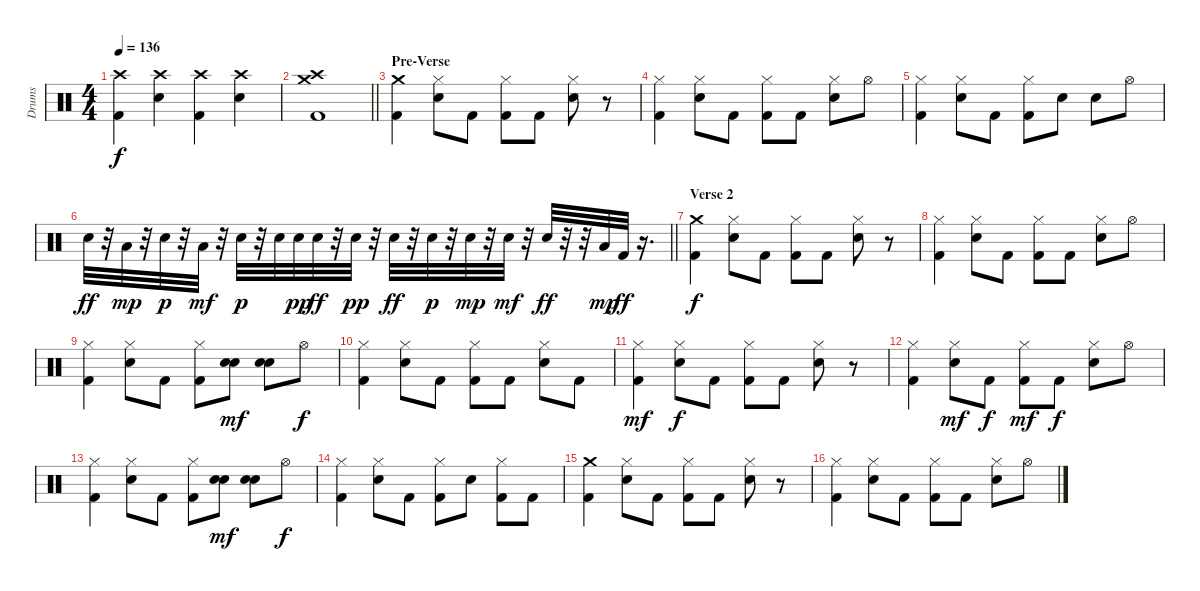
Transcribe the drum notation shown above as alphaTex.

\track ("Drums" "Drums") {instrument percussion}
\staff {score}
\articulation defaults
\ts (4 4)
\tempo 136
\clef neutral
\ks c
("Crash high (hit)" "Kick (hit) 2").4{dy f} ("Crash high (hit)" "Snare (hit) 2").4 ("Crash high (hit)" "Kick (hit) 2").4 ("Crash high (hit)" "Snare (hit) 2").4 |
\barLineRight lightlight
("Crash high (hit)" "Crash medium (hit)" "Kick (hit) 2").1 |
\section ("" "Pre-Verse ")
("Crash medium (hit)" "Kick (hit) 2").4 ("Hi-Hat (closed)" "Snare (hit) 2").8 "Kick (hit) 2".8 ("Hi-Hat (closed)" "Kick (hit) 2").8 "Kick (hit) 2".8 ("Hi-Hat (closed)" "Snare (hit) 2").8 r.8 |
("Hi-Hat (closed)" "Kick (hit) 2").4 ("Hi-Hat (closed)" "Snare (hit) 2").8 "Kick (hit) 2".8 ("Hi-Hat (closed)" "Kick (hit) 2").8 "Kick (hit) 2".8 ("Hi-Hat (closed)" "Snare (hit) 2").8 "Hi-Hat (open)".8 |
("Hi-Hat (closed)" "Kick (hit) 2").4 ("Hi-Hat (closed)" "Snare (hit) 2").8 "Kick (hit) 2".8 ("Hi-Hat (closed)" "Kick (hit) 2").8 "Snare (hit) 2".8 "Snare (hit) 2".8 "Hi-Hat (open)".8 |
\barLineRight lightlight "Snare (hit) 2".32{dy ff}
r.32 "Low Tom (hit)".32{dy mp} r.32 "Snare (hit) 2".32{dy p} r.32 "Low Tom (hit)".32{dy mf} r.32 "Snare (hit) 2".32{dy p} r.32 "Snare (hit) 2".32 "Snare (hit) 2".32{dy pp} "Snare (hit) 2".32{dy ff} r.32 "Snare (hit) 2".32{dy pp} r.32 "Snare (hit) 2".32{dy ff} r.32 "Snare (hit) 2".32{dy p} r.32 "Snare (hit) 2".32{dy mp} r.32 "Snare (hit) 2".32{dy mf} r.32 "Snare (hit) 2".32{dy ff} r.32 r.32 "Low Floor Tom (hit)".32{dy mp} "Kick (hit) 2".32{dy ff} r.16{d} |
\section ("" "Verse 2")
("Crash medium (hit)" "Kick (hit) 2").4{dy f} ("Hi-Hat (closed)" "Snare (hit) 2").8 "Kick (hit) 2".8 ("Hi-Hat (closed)" "Kick (hit) 2").8 "Kick (hit) 2".8 ("Hi-Hat (closed)" "Snare (hit) 2").8 r.8 |
("Hi-Hat (closed)" "Kick (hit) 2").4 ("Hi-Hat (closed)" "Snare (hit) 2").8 "Kick (hit) 2".8 ("Hi-Hat (closed)" "Kick (hit) 2").8 "Kick (hit) 2".8 ("Hi-Hat (closed)" "Snare (hit) 2").8 "Hi-Hat (open)".8 |
("Hi-Hat (closed)" "Kick (hit) 2").4 ("Hi-Hat (closed)" "Snare (hit) 2").8 "Kick (hit) 2".8 ("Hi-Hat (closed)" "Kick (hit) 2").8 ("Hand Clap (hit)" "Snare (hit) 2").8{dy mf} ("Hand Clap (hit)" "Snare (hit) 2").8 "Hi-Hat (open)".8{dy f} |
("Hi-Hat (closed)" "Kick (hit) 2").4 ("Hi-Hat (closed)" "Snare (hit) 2").8 "Kick (hit) 2".8 ("Hi-Hat (closed)" "Kick (hit) 2").8 "Kick (hit) 2".8 ("Hi-Hat (closed)" "Snare (hit) 2").8 "Kick (hit) 2".8 |
("Hi-Hat (closed)" "Kick (hit) 2").4{dy mf} ("Hi-Hat (closed)" "Snare (hit) 2").8{dy f} "Kick (hit) 2".8 ("Hi-Hat (closed)" "Kick (hit) 2").8 "Kick (hit) 2".8 ("Hi-Hat (closed)" "Snare (hit) 2").8 r.8 |
("Hi-Hat (closed)" "Kick (hit) 2").4 ("Hi-Hat (closed)" "Snare (hit) 2").8{dy mf} "Kick (hit) 2".8{dy f} ("Hi-Hat (closed)" "Kick (hit) 2").8{dy mf} "Kick (hit) 2".8{dy f} ("Hi-Hat (closed)" "Snare (hit) 2").8 "Hi-Hat (open)".8 |
("Hi-Hat (closed)" "Kick (hit) 2").4 ("Hi-Hat (closed)" "Snare (hit) 2").8 "Kick (hit) 2".8 ("Hi-Hat (closed)" "Kick (hit) 2").8 ("Hand Clap (hit)" "Snare (hit) 2").8{dy mf} ("Hand Clap (hit)" "Snare (hit) 2").8 "Hi-Hat (open)".8{dy f} |
("Hi-Hat (closed)" "Kick (hit) 2").4 ("Hi-Hat (closed)" "Snare (hit) 2").8 "Kick (hit) 2".8 ("Hi-Hat (closed)" "Kick (hit) 2").8 "Snare (hit) 2".8 ("Hi-Hat (closed)" "Kick (hit) 2").8 "Kick (hit) 2".8 |
("Crash medium (hit)" "Kick (hit) 2").4 ("Hi-Hat (closed)" "Snare (hit) 2").8 "Kick (hit) 2".8 ("Hi-Hat (closed)" "Kick (hit) 2").8 "Kick (hit) 2".8 ("Hi-Hat (closed)" "Snare (hit) 2").8 r.8 |
("Hi-Hat (closed)" "Kick (hit) 2").4 ("Hi-Hat (closed)" "Snare (hit) 2").8 "Kick (hit) 2".8 ("Hi-Hat (closed)" "Kick (hit) 2").8 "Kick (hit) 2".8 ("Hi-Hat (closed)" "Snare (hit) 2").8 "Hi-Hat (open)".8
